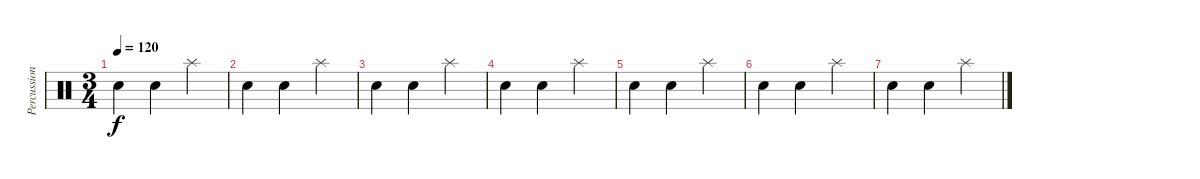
\track ("Percussion" "Percussion") {instrument percussion}
\staff {score}
\articulation defaults
\ts (3 4)
\tempo 120
\clef neutral
\ks c "Snare (hit) 2".4{dy f} "Snare (hit) 2".4 "Splash (hit)".4
|
"Snare (hit) 2".4 "Snare (hit) 2".4 "Splash (hit)".4 |
"Snare (hit) 2".4 "Snare (hit) 2".4 "Splash (hit)".4 |
"Snare (hit) 2".4 "Snare (hit) 2".4 "Splash (hit)".4 |
"Snare (hit) 2".4 "Snare (hit) 2".4 "Splash (hit)".4 |
"Snare (hit) 2".4 "Snare (hit) 2".4 "Splash (hit)".4 |
"Snare (hit) 2".4 "Snare (hit) 2".4 "Splash (hit)".4
